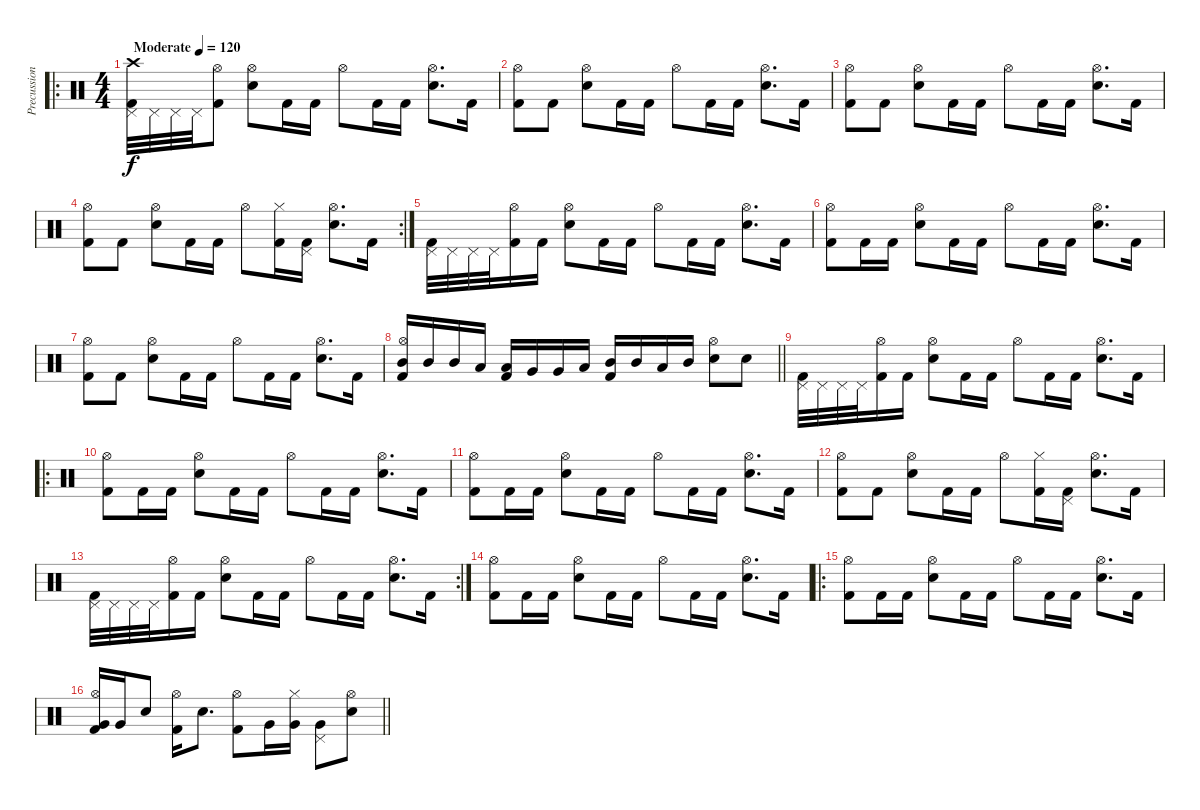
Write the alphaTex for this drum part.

\track ("Precussion" "Precussion") {instrument percussion}
\staff {score}
\articulation defaults
\ro
\ts (4 4)
\tempo (120 "Moderate")
\clef neutral
\ks c
("Pedal Hi-Hat (hit)" "Crash high (hit)" "Kick (hit) 2").32{dy f} "Pedal Hi-Hat (hit)".32 "Pedal Hi-Hat (hit)".32 "Pedal Hi-Hat (hit)".32 ("Hi-Hat (open)" "Kick (hit) 2").8 ("Hi-Hat (open)" "Electric Snare (hit)").8 "Kick (hit) 2".16 "Kick (hit) 2".16 "Hi-Hat (open)".8 "Kick (hit) 2".16 "Kick (hit) 2".16 ("Hi-Hat (open)" "Electric Snare (hit)").8{d} "Kick (hit) 2".16 |
("Hi-Hat (open)" "Kick (hit) 2").8 "Kick (hit) 2".8 ("Hi-Hat (open)" "Electric Snare (hit)").8 "Kick (hit) 2".16 "Kick (hit) 2".16 "Hi-Hat (open)".8 "Kick (hit) 2".16 "Kick (hit) 2".16 ("Hi-Hat (open)" "Electric Snare (hit)").8{d} "Kick (hit) 2".16 |
("Hi-Hat (open)" "Kick (hit) 2").8 "Kick (hit) 2".8 ("Hi-Hat (open)" "Electric Snare (hit)").8 "Kick (hit) 2".16 "Kick (hit) 2".16 "Hi-Hat (open)".8 "Kick (hit) 2".16 "Kick (hit) 2".16 ("Hi-Hat (open)" "Electric Snare (hit)").8{d} "Kick (hit) 2".16 |
\rc 2
("Hi-Hat (open)" "Kick (hit) 2").8 "Kick (hit) 2".8 ("Hi-Hat (open)" "Electric Snare (hit)").8 "Kick (hit) 2".16 "Kick (hit) 2".16 "Hi-Hat (open)".8 ("Hi-Hat (closed)" "Kick (hit) 2").16 ("Pedal Hi-Hat (hit)" "Kick (hit) 2").16 ("Hi-Hat (open)" "Electric Snare (hit)").8{d} "Kick (hit) 2".16 |
("Pedal Hi-Hat (hit)" "Kick (hit) 2").32 "Pedal Hi-Hat (hit)".32 "Pedal Hi-Hat (hit)".32 "Pedal Hi-Hat (hit)".32 ("Hi-Hat (open)" "Kick (hit) 2").16 "Kick (hit) 2".16 ("Hi-Hat (open)" "Electric Snare (hit)").8 "Kick (hit) 2".16 "Kick (hit) 2".16 "Hi-Hat (open)".8 "Kick (hit) 2".16 "Kick (hit) 2".16 ("Hi-Hat (open)" "Electric Snare (hit)").8{d} "Kick (hit) 2".16 |
("Hi-Hat (open)" "Kick (hit) 2").8 "Kick (hit) 2".16 "Kick (hit) 2".16 ("Hi-Hat (open)" "Electric Snare (hit)").8 "Kick (hit) 2".16 "Kick (hit) 2".16 "Hi-Hat (open)".8 "Kick (hit) 2".16 "Kick (hit) 2".16 ("Hi-Hat (open)" "Electric Snare (hit)").8{d} "Kick (hit) 2".16 |
("Hi-Hat (open)" "Kick (hit) 2").8 "Kick (hit) 2".8 ("Hi-Hat (open)" "Electric Snare (hit)").8 "Kick (hit) 2".16 "Kick (hit) 2".16 "Hi-Hat (open)".8 "Kick (hit) 2".16 "Kick (hit) 2".16 ("Hi-Hat (open)" "Electric Snare (hit)").8{d} "Kick (hit) 2".16 |
\barLineRight lightlight
("Hi-Hat (open)" "Mid Tom (hit)" "Kick (hit) 2").16 "Mid Tom (hit)".16 "Mid Tom (hit)".16 "Low Tom (hit)".16 ("Low Tom (hit)" "Kick (hit) 2").16 "Very Low Tom (hit)".16 "Very Low Tom (hit)".16 "Low Tom (hit)".16 ("Mid Tom (hit)" "Kick (hit) 2").16 "Mid Tom (hit)".16 "Low Tom (hit)".16 "Mid Tom (hit)".16 ("Hi-Hat (open)" "Electric Snare (hit)").8 "Electric Snare (hit)".8 |
("Pedal Hi-Hat (hit)" "Kick (hit) 2").32 "Pedal Hi-Hat (hit)".32 "Pedal Hi-Hat (hit)".32 "Pedal Hi-Hat (hit)".32 ("Hi-Hat (open)" "Kick (hit) 2").16 "Kick (hit) 2".16 ("Hi-Hat (open)" "Electric Snare (hit)").8 "Kick (hit) 2".16 "Kick (hit) 2".16 "Hi-Hat (open)".8 "Kick (hit) 2".16 "Kick (hit) 2".16 ("Hi-Hat (open)" "Electric Snare (hit)").8{d} "Kick (hit) 2".16 |
\ro
("Hi-Hat (open)" "Kick (hit) 2").8 "Kick (hit) 2".16 "Kick (hit) 2".16 ("Hi-Hat (open)" "Electric Snare (hit)").8 "Kick (hit) 2".16 "Kick (hit) 2".16 "Hi-Hat (open)".8 "Kick (hit) 2".16 "Kick (hit) 2".16 ("Hi-Hat (open)" "Electric Snare (hit)").8{d} "Kick (hit) 2".16 |
("Hi-Hat (open)" "Kick (hit) 2").8 "Kick (hit) 2".16 "Kick (hit) 2".16 ("Hi-Hat (open)" "Electric Snare (hit)").8 "Kick (hit) 2".16 "Kick (hit) 2".16 "Hi-Hat (open)".8 "Kick (hit) 2".16 "Kick (hit) 2".16 ("Hi-Hat (open)" "Electric Snare (hit)").8{d} "Kick (hit) 2".16 |
("Hi-Hat (open)" "Kick (hit) 2").8 "Kick (hit) 2".8 ("Hi-Hat (open)" "Electric Snare (hit)").8 "Kick (hit) 2".16 "Kick (hit) 2".16 "Hi-Hat (open)".8 ("Hi-Hat (closed)" "Kick (hit) 2").16 ("Pedal Hi-Hat (hit)" "Kick (hit) 2").16 ("Hi-Hat (open)" "Electric Snare (hit)").8{d} "Kick (hit) 2".16 |
\rc 2
("Pedal Hi-Hat (hit)" "Kick (hit) 2").32 "Pedal Hi-Hat (hit)".32 "Pedal Hi-Hat (hit)".32 "Pedal Hi-Hat (hit)".32 ("Hi-Hat (open)" "Kick (hit) 2").16 "Kick (hit) 2".16 ("Hi-Hat (open)" "Electric Snare (hit)").8 "Kick (hit) 2".16 "Kick (hit) 2".16 "Hi-Hat (open)".8 "Kick (hit) 2".16 "Kick (hit) 2".16 ("Hi-Hat (open)" "Electric Snare (hit)").8{d} "Kick (hit) 2".16 |
("Hi-Hat (open)" "Kick (hit) 2").8 "Kick (hit) 2".16 "Kick (hit) 2".16 ("Hi-Hat (open)" "Electric Snare (hit)").8 "Kick (hit) 2".16 "Kick (hit) 2".16 "Hi-Hat (open)".8 "Kick (hit) 2".16 "Kick (hit) 2".16 ("Hi-Hat (open)" "Electric Snare (hit)").8{d} "Kick (hit) 2".16 |
\ro
("Hi-Hat (open)" "Kick (hit) 2").8 "Kick (hit) 2".16 "Kick (hit) 2".16 ("Hi-Hat (open)" "Electric Snare (hit)").8 "Kick (hit) 2".16 "Kick (hit) 2".16 "Hi-Hat (open)".8 "Kick (hit) 2".16 "Kick (hit) 2".16 ("Hi-Hat (open)" "Electric Snare (hit)").8{d} "Kick (hit) 2".16 |
\barLineRight lightlight
("Hi-Hat (open)" "Very Low Tom (hit)" "Kick (hit) 2").16 "Very Low Tom (hit)".16 "Electric Snare (hit)".8 ("Hi-Hat (open)" "Kick (hit) 2").16 "Electric Snare (hit)".8{d} ("Hi-Hat (open)" "Kick (hit) 2").8 "Very Low Tom (hit)".16 ("Hi-Hat (closed)" "Very Low Tom (hit)").16 ("Pedal Hi-Hat (hit)" "Very Low Tom (hit)").8 ("Hi-Hat (open)" "Electric Snare (hit)").8
